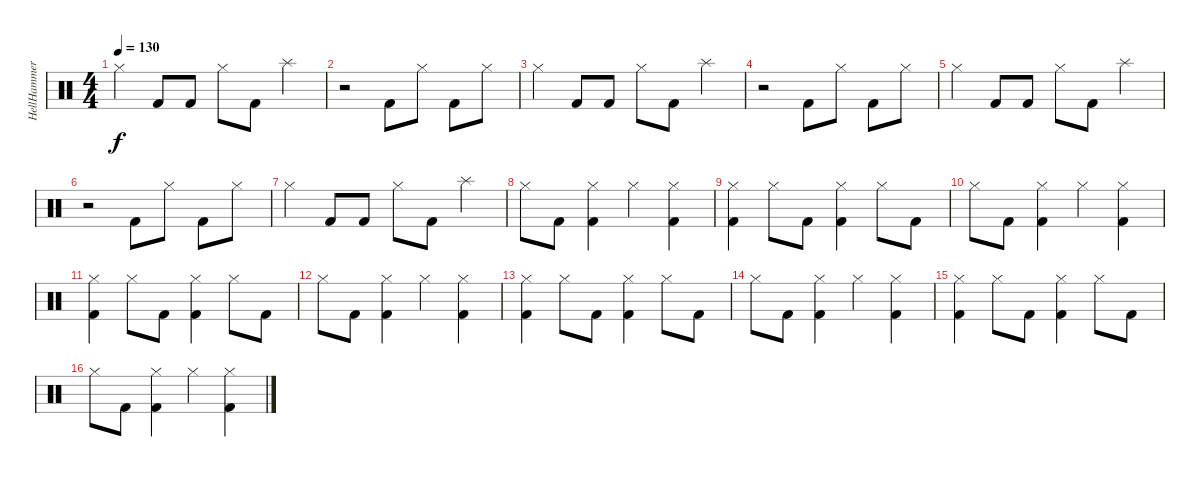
\track ("HellHammer - Drums" "HellHammer") {instrument percussion}
\staff {score}
\articulation defaults
\ts (4 4)
\tempo 130
\clef neutral
\ks c "Hi-Hat (closed)".4{dy f} "Kick (hit) 2".8 "Kick (hit) 2".8 "Hi-Hat (closed)".8 "Kick (hit) 2".8 "Splash (hit)".4
|
r.2 "Kick (hit) 2".8 "Hi-Hat (closed)".8 "Kick (hit) 2".8 "Hi-Hat (closed)".8 |
"Hi-Hat (closed)".4 "Kick (hit) 2".8 "Kick (hit) 2".8 "Hi-Hat (closed)".8 "Kick (hit) 2".8 "Splash (hit)".4 |
r.2 "Kick (hit) 2".8 "Hi-Hat (closed)".8 "Kick (hit) 2".8 "Hi-Hat (closed)".8 |
"Hi-Hat (closed)".4 "Kick (hit) 2".8 "Kick (hit) 2".8 "Hi-Hat (closed)".8 "Kick (hit) 2".8 "Splash (hit)".4 |
r.2 "Kick (hit) 2".8 "Hi-Hat (closed)".8 "Kick (hit) 2".8 "Hi-Hat (closed)".8 |
"Hi-Hat (closed)".4 "Kick (hit) 2".8 "Kick (hit) 2".8 "Hi-Hat (closed)".8 "Kick (hit) 2".8 "Splash (hit)".4 |
"Hi-Hat (closed)".8 "Kick (hit) 2".8 ("Hi-Hat (closed)" "Kick (hit) 2").4 "Hi-Hat (closed)".4 ("Hi-Hat (closed)" "Kick (hit) 2").4 |
("Hi-Hat (closed)" "Kick (hit) 2").4 "Hi-Hat (closed)".8 "Kick (hit) 2".8 ("Hi-Hat (closed)" "Kick (hit) 2").4 "Hi-Hat (closed)".8 "Kick (hit) 2".8 |
"Hi-Hat (closed)".8 "Kick (hit) 2".8 ("Hi-Hat (closed)" "Kick (hit) 2").4 "Hi-Hat (closed)".4 ("Hi-Hat (closed)" "Kick (hit) 2").4 |
("Hi-Hat (closed)" "Kick (hit) 2").4 "Hi-Hat (closed)".8 "Kick (hit) 2".8 ("Hi-Hat (closed)" "Kick (hit) 2").4 "Hi-Hat (closed)".8 "Kick (hit) 2".8 |
"Hi-Hat (closed)".8 "Kick (hit) 2".8 ("Hi-Hat (closed)" "Kick (hit) 2").4 "Hi-Hat (closed)".4 ("Hi-Hat (closed)" "Kick (hit) 2").4 |
("Hi-Hat (closed)" "Kick (hit) 2").4 "Hi-Hat (closed)".8 "Kick (hit) 2".8 ("Hi-Hat (closed)" "Kick (hit) 2").4 "Hi-Hat (closed)".8 "Kick (hit) 2".8 |
"Hi-Hat (closed)".8 "Kick (hit) 2".8 ("Hi-Hat (closed)" "Kick (hit) 2").4 "Hi-Hat (closed)".4 ("Hi-Hat (closed)" "Kick (hit) 2").4 |
("Hi-Hat (closed)" "Kick (hit) 2").4 "Hi-Hat (closed)".8 "Kick (hit) 2".8 ("Hi-Hat (closed)" "Kick (hit) 2").4 "Hi-Hat (closed)".8 "Kick (hit) 2".8 |
"Hi-Hat (closed)".8 "Kick (hit) 2".8 ("Hi-Hat (closed)" "Kick (hit) 2").4 "Hi-Hat (closed)".4 ("Hi-Hat (closed)" "Kick (hit) 2").4
